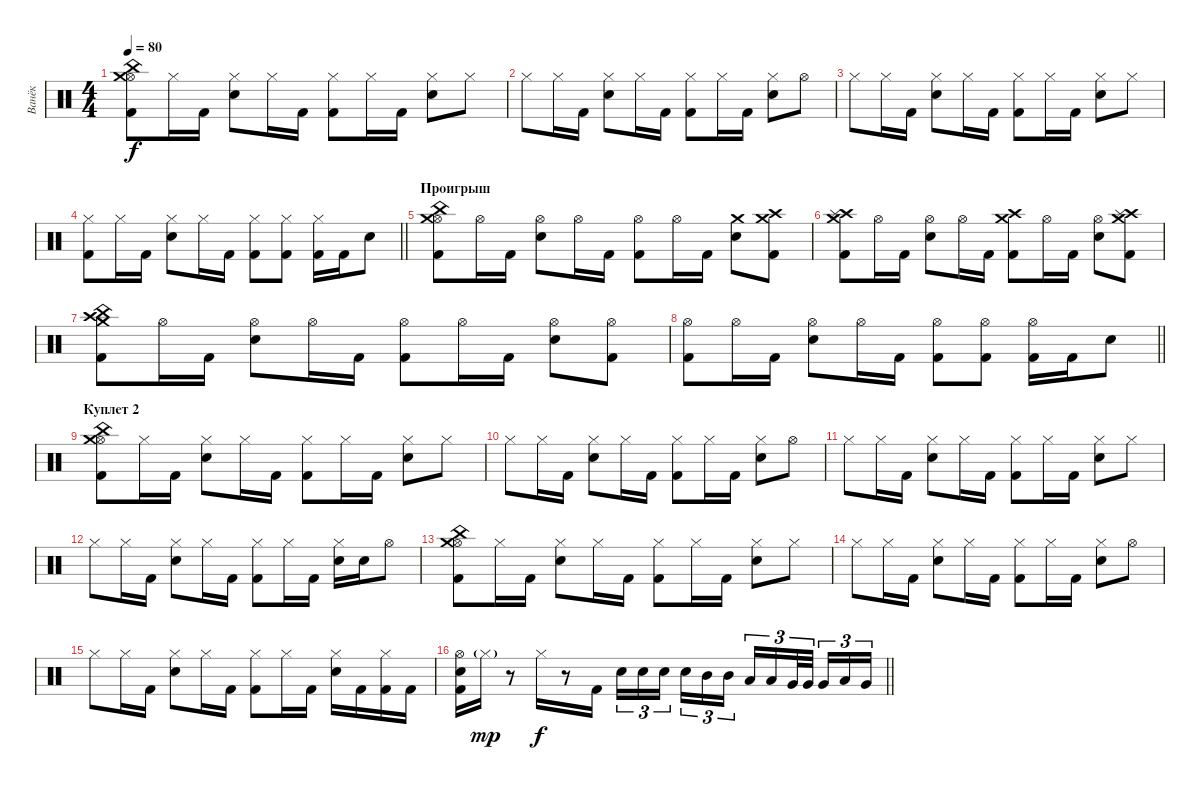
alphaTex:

\track ("Ванёк" "Ванёк") {instrument percussion}
\staff {score}
\articulation defaults
\ts (4 4)
\tempo 80
\clef neutral
\ks c
("Hi-Hat (open)" "Crash medium (hit)" "China (hit)" "Kick (hit) 2").8{dy f} "Hi-Hat (closed)".16 "Kick (hit) 2".16 ("Hi-Hat (closed)" "Snare (hit) 2").8 "Hi-Hat (closed)".16 "Kick (hit) 2".16 ("Hi-Hat (closed)" "Kick (hit) 2").8 "Hi-Hat (closed)".16 "Kick (hit) 2".16 ("Hi-Hat (closed)" "Snare (hit) 2").8 "Hi-Hat (closed)".8 |
"Hi-Hat (closed)".8 "Hi-Hat (closed)".16 "Kick (hit) 2".16 ("Hi-Hat (closed)" "Snare (hit) 2").8 "Hi-Hat (closed)".16 "Kick (hit) 2".16 ("Hi-Hat (closed)" "Kick (hit) 2").8 "Hi-Hat (closed)".16 "Kick (hit) 2".16 ("Hi-Hat (closed)" "Snare (hit) 2").8 "Hi-Hat (open)".8 |
"Hi-Hat (closed)".8 "Hi-Hat (closed)".16 "Kick (hit) 2".16 ("Hi-Hat (closed)" "Snare (hit) 2").8 "Hi-Hat (closed)".16 "Kick (hit) 2".16 ("Hi-Hat (closed)" "Kick (hit) 2").8 "Hi-Hat (closed)".16 "Kick (hit) 2".16 ("Hi-Hat (closed)" "Snare (hit) 2").8 "Hi-Hat (closed)".8 |
\barLineRight lightlight
("Hi-Hat (closed)" "Kick (hit) 2").8 "Hi-Hat (closed)".16 "Kick (hit) 2".16 ("Hi-Hat (closed)" "Snare (hit) 2").8 "Hi-Hat (closed)".16 "Kick (hit) 2".16 ("Hi-Hat (closed)" "Kick (hit) 2").8 ("Hi-Hat (closed)" "Kick (hit) 2").8 ("Hi-Hat (closed)" "Kick (hit) 2").16 "Kick (hit) 2".16 "Snare (hit) 2".8 |
\section ("" "Проигрыш")
("Hi-Hat (open)" "Crash medium (hit)" "China (hit)" "Kick (hit) 2").8 "Hi-Hat (open)".16 "Kick (hit) 2".16 ("Hi-Hat (open)" "Snare (hit) 2").8 "Hi-Hat (open)".16 "Kick (hit) 2".16 ("Hi-Hat (open)" "Kick (hit) 2").8 "Hi-Hat (open)".16 "Kick (hit) 2".16 ("Crash medium (hit)" "Snare (hit) 2").8 ("Crash high (hit)" "Crash medium (hit)" "Kick (hit) 2").8 |
("Crash high (hit)" "Crash medium (hit)" "Splash (hit)" "Kick (hit) 2").8 "Hi-Hat (open)".16 "Kick (hit) 2".16 ("Hi-Hat (open)" "Snare (hit) 2").8 "Hi-Hat (open)".16 "Kick (hit) 2".16 ("Crash high (hit)" "Crash medium (hit)" "Kick (hit) 2").8 "Hi-Hat (open)".16 "Kick (hit) 2".16 ("Hi-Hat (open)" "Snare (hit) 2").8 ("Crash high (hit)" "Crash medium (hit)" "Splash (hit)" "Kick (hit) 2").8 |
("Crash high (hit)" "Crash medium (hit)" "China (hit)" "Kick (hit) 2").8 "Hi-Hat (open)".16 "Kick (hit) 2".16 ("Hi-Hat (open)" "Snare (hit) 2").8 "Hi-Hat (open)".16 "Kick (hit) 2".16 ("Hi-Hat (open)" "Kick (hit) 2").8 "Hi-Hat (open)".16 "Kick (hit) 2".16 ("Hi-Hat (open)" "Snare (hit) 2").8 ("Hi-Hat (open)" "Kick (hit) 2").8 |
\barLineRight lightlight
("Hi-Hat (open)" "Kick (hit) 2").8 "Hi-Hat (open)".16 "Kick (hit) 2".16 ("Hi-Hat (open)" "Snare (hit) 2").8 "Hi-Hat (open)".16 "Kick (hit) 2".16 ("Hi-Hat (open)" "Kick (hit) 2").8 ("Hi-Hat (open)" "Kick (hit) 2").8 ("Hi-Hat (open)" "Kick (hit) 2").16 "Kick (hit) 2".16 "Snare (hit) 2".8 |
\section ("" "Куплет 2")
("Hi-Hat (open)" "Crash medium (hit)" "China (hit)" "Kick (hit) 2").8 "Hi-Hat (closed)".16 "Kick (hit) 2".16 ("Hi-Hat (closed)" "Snare (hit) 2").8 "Hi-Hat (closed)".16 "Kick (hit) 2".16 ("Hi-Hat (closed)" "Kick (hit) 2").8 "Hi-Hat (closed)".16 "Kick (hit) 2".16 ("Hi-Hat (closed)" "Snare (hit) 2").8 "Hi-Hat (closed)".8 |
"Hi-Hat (closed)".8 "Hi-Hat (closed)".16 "Kick (hit) 2".16 ("Hi-Hat (closed)" "Snare (hit) 2").8 "Hi-Hat (closed)".16 "Kick (hit) 2".16 ("Hi-Hat (closed)" "Kick (hit) 2").8 "Hi-Hat (closed)".16 "Kick (hit) 2".16 ("Hi-Hat (closed)" "Snare (hit) 2").8 "Hi-Hat (open)".8 |
"Hi-Hat (closed)".8 "Hi-Hat (closed)".16 "Kick (hit) 2".16 ("Hi-Hat (closed)" "Snare (hit) 2").8 "Hi-Hat (closed)".16 "Kick (hit) 2".16 ("Hi-Hat (closed)" "Kick (hit) 2").8 "Hi-Hat (closed)".16 "Kick (hit) 2".16 ("Hi-Hat (closed)" "Snare (hit) 2").8 "Hi-Hat (closed)".8 |
"Hi-Hat (closed)".8 "Hi-Hat (closed)".16 "Kick (hit) 2".16 ("Hi-Hat (closed)" "Snare (hit) 2").8 "Hi-Hat (closed)".16 "Kick (hit) 2".16 ("Hi-Hat (closed)" "Kick (hit) 2").8 "Hi-Hat (closed)".16 "Kick (hit) 2".16 ("Hi-Hat (closed)" "Snare (hit) 2").16 "Snare (hit) 2".16 "Hi-Hat (open)".8 |
("Hi-Hat (open)" "Crash medium (hit)" "China (hit)" "Kick (hit) 2").8 "Hi-Hat (closed)".16 "Kick (hit) 2".16 ("Hi-Hat (closed)" "Snare (hit) 2").8 "Hi-Hat (closed)".16 "Kick (hit) 2".16 ("Hi-Hat (closed)" "Kick (hit) 2").8 "Hi-Hat (closed)".16 "Kick (hit) 2".16 ("Hi-Hat (closed)" "Snare (hit) 2").8 "Hi-Hat (closed)".8 |
"Hi-Hat (closed)".8 "Hi-Hat (closed)".16 "Kick (hit) 2".16 ("Hi-Hat (closed)" "Snare (hit) 2").8 "Hi-Hat (closed)".16 "Kick (hit) 2".16 ("Hi-Hat (closed)" "Kick (hit) 2").8 "Hi-Hat (closed)".16 "Kick (hit) 2".16 ("Hi-Hat (closed)" "Snare (hit) 2").8 "Hi-Hat (open)".8 |
"Hi-Hat (closed)".8 "Hi-Hat (closed)".16 "Kick (hit) 2".16 ("Hi-Hat (closed)" "Snare (hit) 2").8 "Hi-Hat (closed)".16 "Kick (hit) 2".16 ("Hi-Hat (closed)" "Kick (hit) 2").8 "Hi-Hat (closed)".16 "Kick (hit) 2".16 ("Hi-Hat (closed)" "Snare (hit) 2").16 "Kick (hit) 2".16 ("Hi-Hat (closed)" "Kick (hit) 2").16 "Kick (hit) 2".16 |
\barLineRight lightlight
("Hi-Hat (open)" "Snare (hit) 2" "Kick (hit) 2").16 "Hi-Hat (closed)"{g}.16{dy mp} r.8 "Hi-Hat (closed)".16{dy f} r.8 "Kick (hit) 2".16 "Snare (hit) 2".16{tu (3 2)} "Snare (hit) 2".16{tu (3 2)} "Snare (hit) 2".16{tu (3 2) beam splitsecondary} "Snare (hit) 2".16{tu (3 2)} "Mid Tom (hit)".16{tu (3 2)} "Mid Tom (hit)".16{tu (3 2)} "Low Tom (hit)".16{tu (3 2)} "Low Floor Tom (hit)".16{tu (3 2)} "Very Low Tom (hit)".32{tu (3 2)} "Very Low Tom (hit)".32{tu (3 2) beam splitsecondary} "Very Low Tom (hit)".16{tu (3 2)} "Low Floor Tom (hit)".16{tu (3 2)} "Very Low Tom (hit)".16{tu (3 2)}
